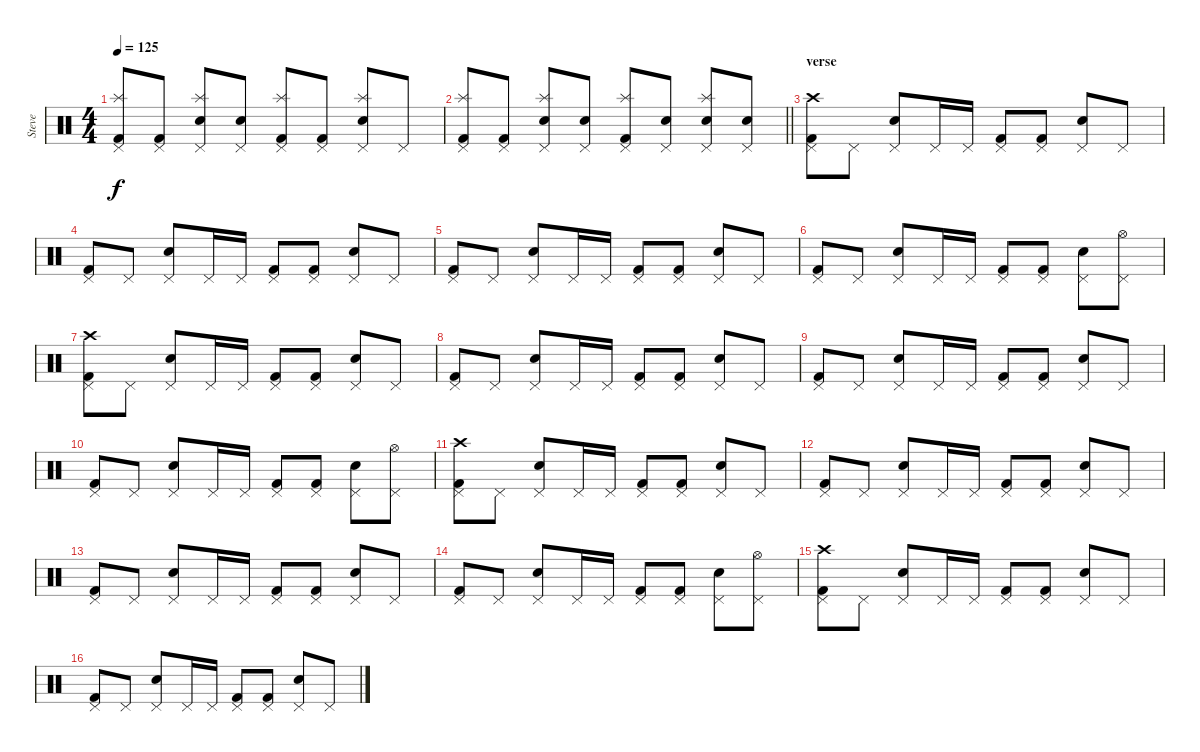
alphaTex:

\track ("Steve" "Steve") {instrument percussion}
\staff {score}
\articulation defaults
\ts (4 4)
\tempo 125
\clef neutral
\ks c
("Pedal Hi-Hat (hit)" "Splash (hit)" "Kick (hit) 2").8{dy f} ("Pedal Hi-Hat (hit)" "Kick (hit) 2").8 ("Pedal Hi-Hat (hit)" "Splash (hit)" "Electric Snare (hit)").8 ("Pedal Hi-Hat (hit)" "Electric Snare (hit)").8 ("Pedal Hi-Hat (hit)" "Splash (hit)" "Kick (hit) 2").8 ("Pedal Hi-Hat (hit)" "Kick (hit) 2").8 ("Pedal Hi-Hat (hit)" "Splash (hit)" "Electric Snare (hit)").8 "Pedal Hi-Hat (hit)".8 |
\barLineRight lightlight
("Pedal Hi-Hat (hit)" "Splash (hit)" "Kick (hit) 2").8 ("Pedal Hi-Hat (hit)" "Kick (hit) 2").8 ("Pedal Hi-Hat (hit)" "Splash (hit)" "Electric Snare (hit)").8 ("Pedal Hi-Hat (hit)" "Electric Snare (hit)").8 ("Pedal Hi-Hat (hit)" "Splash (hit)" "Kick (hit) 2").8 ("Pedal Hi-Hat (hit)" "Electric Snare (hit)").8 ("Pedal Hi-Hat (hit)" "Splash (hit)" "Electric Snare (hit)").8 ("Pedal Hi-Hat (hit)" "Electric Snare (hit)").8 |
\section ("" "verse")
("Pedal Hi-Hat (hit)" "Crash high (hit)" "Kick (hit) 2").8 "Pedal Hi-Hat (hit)".8 ("Pedal Hi-Hat (hit)" "Electric Snare (hit)").8 "Pedal Hi-Hat (hit)".16 "Pedal Hi-Hat (hit)".16 ("Pedal Hi-Hat (hit)" "Kick (hit) 2").8 ("Pedal Hi-Hat (hit)" "Kick (hit) 2").8 ("Pedal Hi-Hat (hit)" "Electric Snare (hit)").8 "Pedal Hi-Hat (hit)".8 |
("Pedal Hi-Hat (hit)" "Kick (hit) 2").8 "Pedal Hi-Hat (hit)".8 ("Pedal Hi-Hat (hit)" "Electric Snare (hit)").8 "Pedal Hi-Hat (hit)".16 "Pedal Hi-Hat (hit)".16 ("Pedal Hi-Hat (hit)" "Kick (hit) 2").8 ("Pedal Hi-Hat (hit)" "Kick (hit) 2").8 ("Pedal Hi-Hat (hit)" "Electric Snare (hit)").8 "Pedal Hi-Hat (hit)".8 |
("Pedal Hi-Hat (hit)" "Kick (hit) 2").8 "Pedal Hi-Hat (hit)".8 ("Pedal Hi-Hat (hit)" "Electric Snare (hit)").8 "Pedal Hi-Hat (hit)".16 "Pedal Hi-Hat (hit)".16 ("Pedal Hi-Hat (hit)" "Kick (hit) 2").8 ("Pedal Hi-Hat (hit)" "Kick (hit) 2").8 ("Pedal Hi-Hat (hit)" "Electric Snare (hit)").8 "Pedal Hi-Hat (hit)".8 |
("Pedal Hi-Hat (hit)" "Kick (hit) 2").8 "Pedal Hi-Hat (hit)".8 ("Pedal Hi-Hat (hit)" "Electric Snare (hit)").8 "Pedal Hi-Hat (hit)".16 "Pedal Hi-Hat (hit)".16 ("Pedal Hi-Hat (hit)" "Kick (hit) 2").8 ("Pedal Hi-Hat (hit)" "Kick (hit) 2").8 ("Pedal Hi-Hat (hit)" "Electric Snare (hit)").8 ("Pedal Hi-Hat (hit)" "Hi-Hat (open)").8 |
("Pedal Hi-Hat (hit)" "Crash high (hit)" "Kick (hit) 2").8 "Pedal Hi-Hat (hit)".8 ("Pedal Hi-Hat (hit)" "Electric Snare (hit)").8 "Pedal Hi-Hat (hit)".16 "Pedal Hi-Hat (hit)".16 ("Pedal Hi-Hat (hit)" "Kick (hit) 2").8 ("Pedal Hi-Hat (hit)" "Kick (hit) 2").8 ("Pedal Hi-Hat (hit)" "Electric Snare (hit)").8 "Pedal Hi-Hat (hit)".8 |
("Pedal Hi-Hat (hit)" "Kick (hit) 2").8 "Pedal Hi-Hat (hit)".8 ("Pedal Hi-Hat (hit)" "Electric Snare (hit)").8 "Pedal Hi-Hat (hit)".16 "Pedal Hi-Hat (hit)".16 ("Pedal Hi-Hat (hit)" "Kick (hit) 2").8 ("Pedal Hi-Hat (hit)" "Kick (hit) 2").8 ("Pedal Hi-Hat (hit)" "Electric Snare (hit)").8 "Pedal Hi-Hat (hit)".8 |
("Pedal Hi-Hat (hit)" "Kick (hit) 2").8 "Pedal Hi-Hat (hit)".8 ("Pedal Hi-Hat (hit)" "Electric Snare (hit)").8 "Pedal Hi-Hat (hit)".16 "Pedal Hi-Hat (hit)".16 ("Pedal Hi-Hat (hit)" "Kick (hit) 2").8 ("Pedal Hi-Hat (hit)" "Kick (hit) 2").8 ("Pedal Hi-Hat (hit)" "Electric Snare (hit)").8 "Pedal Hi-Hat (hit)".8 |
("Pedal Hi-Hat (hit)" "Kick (hit) 2").8 "Pedal Hi-Hat (hit)".8 ("Pedal Hi-Hat (hit)" "Electric Snare (hit)").8 "Pedal Hi-Hat (hit)".16 "Pedal Hi-Hat (hit)".16 ("Pedal Hi-Hat (hit)" "Kick (hit) 2").8 ("Pedal Hi-Hat (hit)" "Kick (hit) 2").8 ("Pedal Hi-Hat (hit)" "Electric Snare (hit)").8 ("Pedal Hi-Hat (hit)" "Hi-Hat (open)").8 |
("Pedal Hi-Hat (hit)" "Crash high (hit)" "Kick (hit) 2").8 "Pedal Hi-Hat (hit)".8 ("Pedal Hi-Hat (hit)" "Electric Snare (hit)").8 "Pedal Hi-Hat (hit)".16 "Pedal Hi-Hat (hit)".16 ("Pedal Hi-Hat (hit)" "Kick (hit) 2").8 ("Pedal Hi-Hat (hit)" "Kick (hit) 2").8 ("Pedal Hi-Hat (hit)" "Electric Snare (hit)").8 "Pedal Hi-Hat (hit)".8 |
("Pedal Hi-Hat (hit)" "Kick (hit) 2").8 "Pedal Hi-Hat (hit)".8 ("Pedal Hi-Hat (hit)" "Electric Snare (hit)").8 "Pedal Hi-Hat (hit)".16 "Pedal Hi-Hat (hit)".16 ("Pedal Hi-Hat (hit)" "Kick (hit) 2").8 ("Pedal Hi-Hat (hit)" "Kick (hit) 2").8 ("Pedal Hi-Hat (hit)" "Electric Snare (hit)").8 "Pedal Hi-Hat (hit)".8 |
("Pedal Hi-Hat (hit)" "Kick (hit) 2").8 "Pedal Hi-Hat (hit)".8 ("Pedal Hi-Hat (hit)" "Electric Snare (hit)").8 "Pedal Hi-Hat (hit)".16 "Pedal Hi-Hat (hit)".16 ("Pedal Hi-Hat (hit)" "Kick (hit) 2").8 ("Pedal Hi-Hat (hit)" "Kick (hit) 2").8 ("Pedal Hi-Hat (hit)" "Electric Snare (hit)").8 "Pedal Hi-Hat (hit)".8 |
("Pedal Hi-Hat (hit)" "Kick (hit) 2").8 "Pedal Hi-Hat (hit)".8 ("Pedal Hi-Hat (hit)" "Electric Snare (hit)").8 "Pedal Hi-Hat (hit)".16 "Pedal Hi-Hat (hit)".16 ("Pedal Hi-Hat (hit)" "Kick (hit) 2").8 ("Pedal Hi-Hat (hit)" "Kick (hit) 2").8 ("Pedal Hi-Hat (hit)" "Electric Snare (hit)").8 ("Pedal Hi-Hat (hit)" "Hi-Hat (open)").8 |
("Pedal Hi-Hat (hit)" "Crash high (hit)" "Kick (hit) 2").8 "Pedal Hi-Hat (hit)".8 ("Pedal Hi-Hat (hit)" "Electric Snare (hit)").8 "Pedal Hi-Hat (hit)".16 "Pedal Hi-Hat (hit)".16 ("Pedal Hi-Hat (hit)" "Kick (hit) 2").8 ("Pedal Hi-Hat (hit)" "Kick (hit) 2").8 ("Pedal Hi-Hat (hit)" "Electric Snare (hit)").8 "Pedal Hi-Hat (hit)".8 |
("Pedal Hi-Hat (hit)" "Kick (hit) 2").8 "Pedal Hi-Hat (hit)".8 ("Pedal Hi-Hat (hit)" "Electric Snare (hit)").8 "Pedal Hi-Hat (hit)".16 "Pedal Hi-Hat (hit)".16 ("Pedal Hi-Hat (hit)" "Kick (hit) 2").8 ("Pedal Hi-Hat (hit)" "Kick (hit) 2").8 ("Pedal Hi-Hat (hit)" "Electric Snare (hit)").8 "Pedal Hi-Hat (hit)".8
